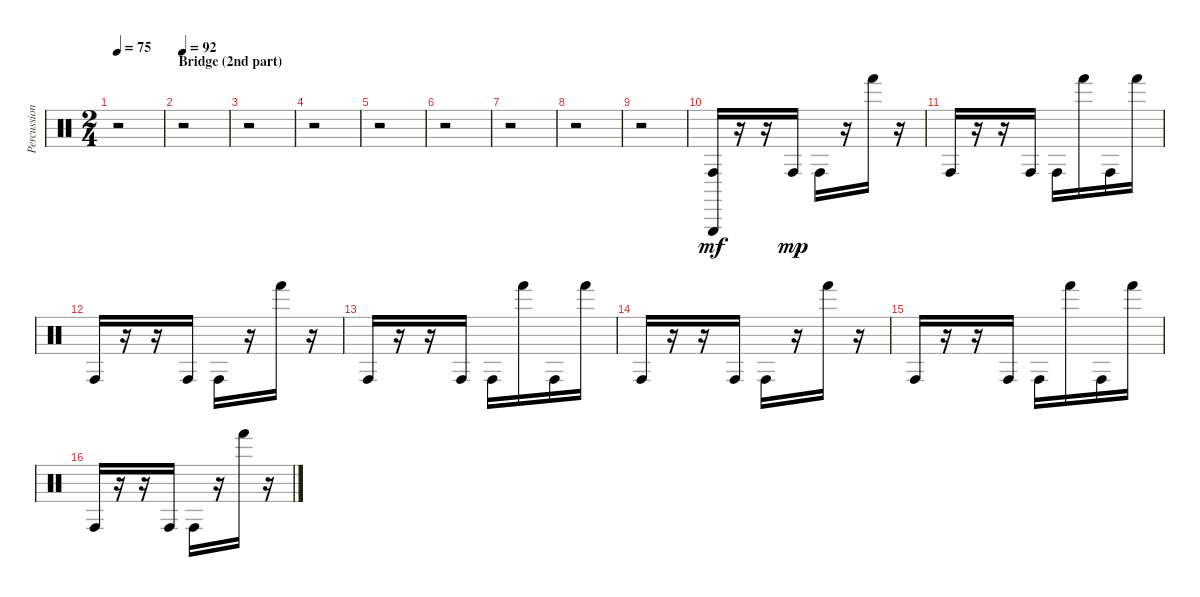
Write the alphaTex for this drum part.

\track ("Percussions" "Percussion") {instrument percussion}
\staff {score}
\articulation defaults
\ts (2 4)
\tempo 75
\clef neutral
\ks c
r.2{dy mf} |
\section ("" "Bridge (2nd part)")
\tempo 92
r.2 |
r.2 |
r.2 |
r.2 |
r.2 |
r.2 |
r.2 |
r.2 |
("Conga high (hit)" "Triangle (hit)").16 r.16 r.16 "Conga high (hit)".16{dy mp} "Conga high (hit)".16 r.16 "Hand (hit)".16 r.16 |
"Conga high (hit)".16 r.16 r.16 "Conga high (hit)".16 "Conga high (hit)".16 "Hand (hit)".16 "Conga high (hit)".16 "Hand (hit)".16 |
"Conga high (hit)".16 r.16 r.16 "Conga high (hit)".16 "Conga high (hit)".16 r.16 "Hand (hit)".16 r.16 |
"Conga high (hit)".16 r.16 r.16 "Conga high (hit)".16 "Conga high (hit)".16 "Hand (hit)".16 "Conga high (hit)".16 "Hand (hit)".16 |
"Conga high (hit)".16 r.16 r.16 "Conga high (hit)".16 "Conga high (hit)".16 r.16 "Hand (hit)".16 r.16 |
"Conga high (hit)".16 r.16 r.16 "Conga high (hit)".16 "Conga high (hit)".16 "Hand (hit)".16 "Conga high (hit)".16 "Hand (hit)".16 |
"Conga high (hit)".16 r.16 r.16 "Conga high (hit)".16 "Conga high (hit)".16 r.16 "Hand (hit)".16 r.16
